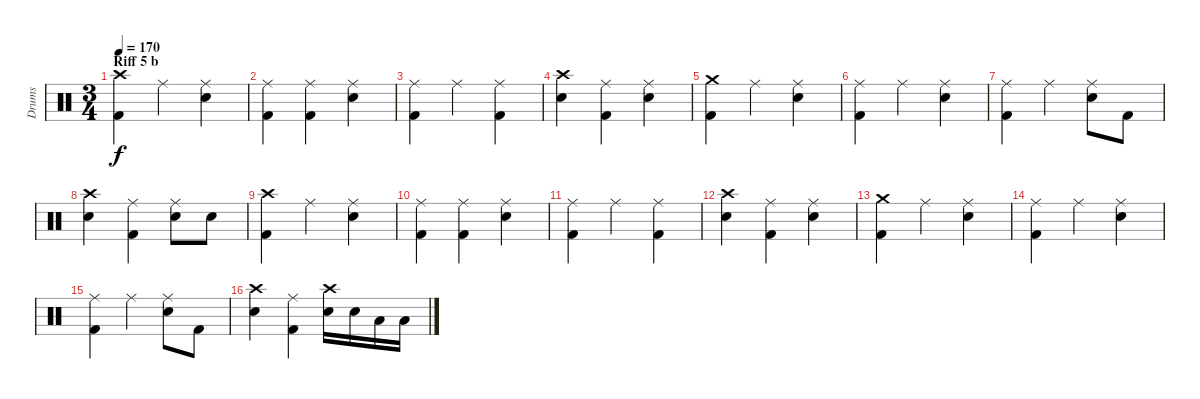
\track ("Drums" "Drums") {instrument percussion}
\staff {score}
\articulation defaults
\ts (3 4)
\section ("" "Riff 5 b")
\tempo 170
\clef neutral
\ks c
("Crash high (hit)" "Kick (hit) 2").4{dy f} "Ride (middle)".4 ("Ride (middle)" "Electric Snare (hit)").4 |
("Ride (middle)" "Kick (hit) 2").4 ("Ride (middle)" "Kick (hit) 2").4 ("Ride (middle)" "Electric Snare (hit)").4 |
("Ride (middle)" "Kick (hit) 2").4 "Ride (middle)".4 ("Ride (middle)" "Kick (hit) 2").4 |
("Crash high (hit)" "Electric Snare (hit)").4 ("Ride (middle)" "Kick (hit) 2").4 ("Ride (middle)" "Electric Snare (hit)").4 |
("Crash medium (hit)" "Kick (hit) 2").4 "Ride (middle)".4 ("Ride (middle)" "Electric Snare (hit)").4 |
("Ride (middle)" "Kick (hit) 2").4 "Ride (middle)".4 ("Ride (middle)" "Electric Snare (hit)").4 |
("Ride (middle)" "Kick (hit) 2").4 "Ride (middle)".4 ("Ride (middle)" "Electric Snare (hit)").8 "Kick (hit) 2".8 |
("Crash high (hit)" "Electric Snare (hit)").4 ("Ride (middle)" "Kick (hit) 2").4 ("Ride (middle)" "Electric Snare (hit)").8 "Electric Snare (hit)".8 |
("Crash high (hit)" "Kick (hit) 2").4 "Ride (middle)".4 ("Ride (middle)" "Electric Snare (hit)").4 |
("Ride (middle)" "Kick (hit) 2").4 ("Ride (middle)" "Kick (hit) 2").4 ("Ride (middle)" "Electric Snare (hit)").4 |
("Ride (middle)" "Kick (hit) 2").4 "Ride (middle)".4 ("Ride (middle)" "Kick (hit) 2").4 |
("Crash high (hit)" "Electric Snare (hit)").4 ("Ride (middle)" "Kick (hit) 2").4 ("Ride (middle)" "Electric Snare (hit)").4 |
("Crash medium (hit)" "Kick (hit) 2").4 "Ride (middle)".4 ("Ride (middle)" "Electric Snare (hit)").4 |
("Ride (middle)" "Kick (hit) 2").4 "Ride (middle)".4 ("Ride (middle)" "Electric Snare (hit)").4 |
("Ride (middle)" "Kick (hit) 2").4 "Ride (middle)".4 ("Ride (middle)" "Electric Snare (hit)").8 "Kick (hit) 2".8 |
("Crash high (hit)" "Electric Snare (hit)").4 ("Ride (middle)" "Kick (hit) 2").4 ("Crash high (hit)" "Electric Snare (hit)").16 "Electric Snare (hit)".16 "Low Tom (hit)".16 "Low Tom (hit)".16
